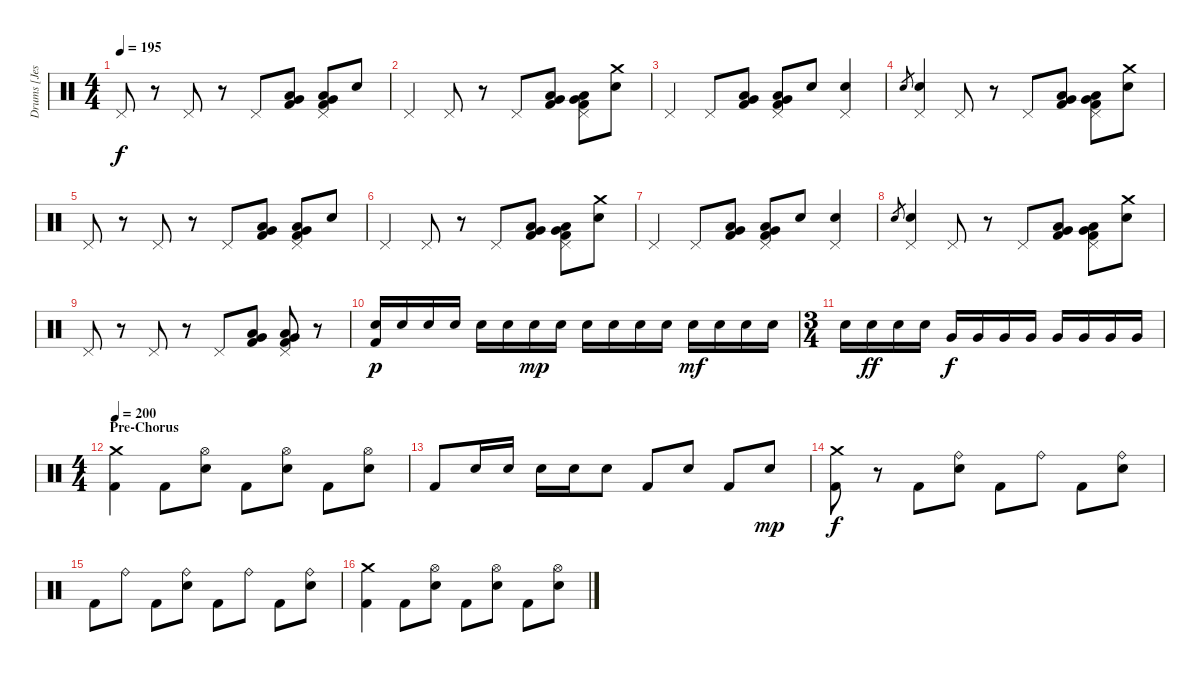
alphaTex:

\track ("Drums [Jesse Ingelevics]" "Drums [Jes") {instrument percussion}
\staff {score}
\articulation defaults
\ts (4 4)
\tempo 195
\clef neutral
\ks c "Pedal Hi-Hat (hit)".8{dy f}
r.8 "Pedal Hi-Hat (hit)".8 r.8 "Pedal Hi-Hat (hit)".8 ("Very Low Tom (hit)" "Low Floor Tom (hit)" "Kick (hit) 2").8 ("Pedal Hi-Hat (hit)" "Very Low Tom (hit)" "Low Floor Tom (hit)" "Kick (hit) 2").8 "Electric Snare (hit)".8 |
"Pedal Hi-Hat (hit)".4 "Pedal Hi-Hat (hit)".8 r.8 "Pedal Hi-Hat (hit)".8 ("Very Low Tom (hit)" "Low Floor Tom (hit)" "Kick (hit) 2").8 ("Pedal Hi-Hat (hit)" "Very Low Tom (hit)" "Low Floor Tom (hit)" "Kick (hit) 2").8 ("Crash medium (hit)" "Electric Snare (hit)").8 |
"Pedal Hi-Hat (hit)".4 "Pedal Hi-Hat (hit)".8 ("Very Low Tom (hit)" "Low Floor Tom (hit)" "Kick (hit) 2").8 ("Pedal Hi-Hat (hit)" "Very Low Tom (hit)" "Low Floor Tom (hit)" "Kick (hit) 2").8 "Electric Snare (hit)".8 ("Pedal Hi-Hat (hit)" "Electric Snare (hit)").4 |
"Electric Snare (hit)".8{gr} ("Pedal Hi-Hat (hit)" "Electric Snare (hit)").4 "Pedal Hi-Hat (hit)".8 r.8 "Pedal Hi-Hat (hit)".8 ("Very Low Tom (hit)" "Low Floor Tom (hit)" "Kick (hit) 2").8 ("Pedal Hi-Hat (hit)" "Very Low Tom (hit)" "Low Floor Tom (hit)" "Kick (hit) 2").8 ("Crash medium (hit)" "Electric Snare (hit)").8 |
"Pedal Hi-Hat (hit)".8 r.8 "Pedal Hi-Hat (hit)".8 r.8 "Pedal Hi-Hat (hit)".8 ("Very Low Tom (hit)" "Low Floor Tom (hit)" "Kick (hit) 2").8 ("Pedal Hi-Hat (hit)" "Very Low Tom (hit)" "Low Floor Tom (hit)" "Kick (hit) 2").8 "Electric Snare (hit)".8 |
"Pedal Hi-Hat (hit)".4 "Pedal Hi-Hat (hit)".8 r.8 "Pedal Hi-Hat (hit)".8 ("Very Low Tom (hit)" "Low Floor Tom (hit)" "Kick (hit) 2").8 ("Pedal Hi-Hat (hit)" "Very Low Tom (hit)" "Low Floor Tom (hit)" "Kick (hit) 2").8 ("Crash medium (hit)" "Electric Snare (hit)").8 |
"Pedal Hi-Hat (hit)".4 "Pedal Hi-Hat (hit)".8 ("Very Low Tom (hit)" "Low Floor Tom (hit)" "Kick (hit) 2").8 ("Pedal Hi-Hat (hit)" "Very Low Tom (hit)" "Low Floor Tom (hit)" "Kick (hit) 2").8 "Electric Snare (hit)".8 ("Pedal Hi-Hat (hit)" "Electric Snare (hit)").4 |
"Electric Snare (hit)".8{gr} ("Pedal Hi-Hat (hit)" "Electric Snare (hit)").4 "Pedal Hi-Hat (hit)".8 r.8 "Pedal Hi-Hat (hit)".8 ("Very Low Tom (hit)" "Low Floor Tom (hit)" "Kick (hit) 2").8 ("Pedal Hi-Hat (hit)" "Very Low Tom (hit)" "Low Floor Tom (hit)" "Kick (hit) 2").8 ("Crash medium (hit)" "Electric Snare (hit)").8 |
"Pedal Hi-Hat (hit)".8 r.8 "Pedal Hi-Hat (hit)".8 r.8 "Pedal Hi-Hat (hit)".8 ("Very Low Tom (hit)" "Low Floor Tom (hit)" "Kick (hit) 2").8 ("Pedal Hi-Hat (hit)" "Very Low Tom (hit)" "Low Floor Tom (hit)" "Kick (hit) 2").8 r.8 |
("Electric Snare (hit)" "Kick (hit) 2").16{dy p} "Electric Snare (hit)".16 "Electric Snare (hit)".16 "Electric Snare (hit)".16 "Electric Snare (hit)".16 "Electric Snare (hit)".16 "Electric Snare (hit)".16{dy mp} "Electric Snare (hit)".16 "Electric Snare (hit)".16 "Electric Snare (hit)".16 "Electric Snare (hit)".16 "Electric Snare (hit)".16 "Electric Snare (hit)".16{dy mf} "Electric Snare (hit)".16 "Electric Snare (hit)".16 "Electric Snare (hit)".16 |
\ts (3 4)
"Electric Snare (hit)".16 "Electric Snare (hit)".16{dy ff} "Electric Snare (hit)".16 "Electric Snare (hit)".16 "Very Low Tom (hit)".16{dy f} "Very Low Tom (hit)".16 "Very Low Tom (hit)".16 "Very Low Tom (hit)".16 "Very Low Tom (hit)".16 "Very Low Tom (hit)".16 "Very Low Tom (hit)".16 "Very Low Tom (hit)".16 |
\ts (4 4)
\section ("" "Pre-Chorus")
\tempo 200
("Crash medium (hit)" "Kick (hit) 2").4 "Kick (hit) 2".8 ("Hi-Hat (open)" "Electric Snare (hit)").8 "Kick (hit) 2".8 ("Hi-Hat (open)" "Electric Snare (hit)").8 "Kick (hit) 2".8 ("Hi-Hat (open)" "Electric Snare (hit)").8 |
"Kick (hit) 2".8 "Electric Snare (hit)".16 "Electric Snare (hit)".16 "Electric Snare (hit)".16 "Electric Snare (hit)".16 "Electric Snare (hit)".8 "Kick (hit) 2".8 "Electric Snare (hit)".8 "Kick (hit) 2".8 "Electric Snare (hit)".8{dy mp} |
("Crash medium (hit)" "Kick (hit) 2").8{dy f} r.8 "Kick (hit) 2".8 ("Ride (bell)" "Electric Snare (hit)").8 "Kick (hit) 2".8 "Ride (bell)".8 "Kick (hit) 2".8 ("Ride (bell)" "Electric Snare (hit)").8 |
"Kick (hit) 2".8 "Ride (bell)".8 "Kick (hit) 2".8 ("Ride (bell)" "Electric Snare (hit)").8 "Kick (hit) 2".8 "Ride (bell)".8 "Kick (hit) 2".8 ("Ride (bell)" "Electric Snare (hit)").8 |
("Crash medium (hit)" "Kick (hit) 2").4 "Kick (hit) 2".8 ("Hi-Hat (open)" "Electric Snare (hit)").8 "Kick (hit) 2".8 ("Hi-Hat (open)" "Electric Snare (hit)").8 "Kick (hit) 2".8 ("Hi-Hat (open)" "Electric Snare (hit)").8
